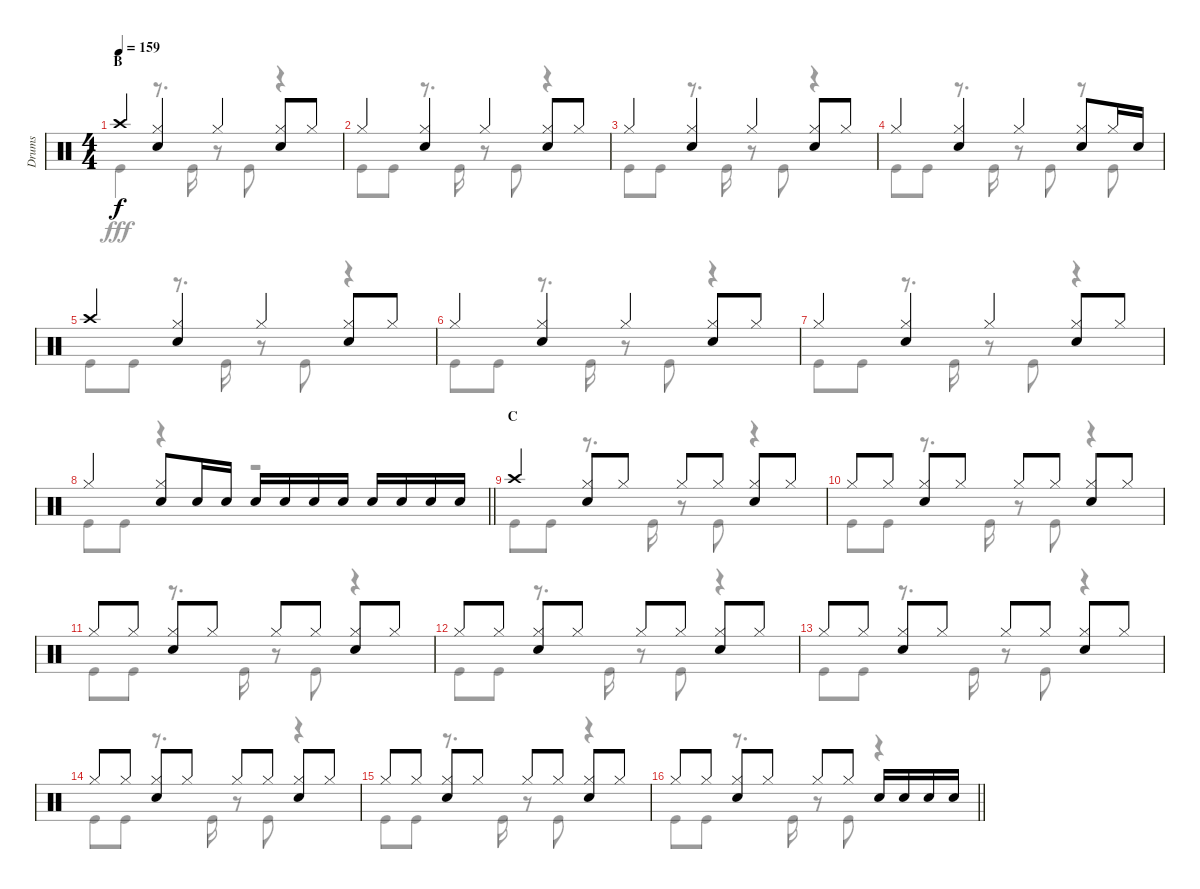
\track ("Drums" "Drums") {instrument percussion}
\staff {score}
\articulation defaults
\voice
\ts (4 4)
\section ("" "B")
\tempo 159
\clef neutral
\ks c "Crash high (hit)".4{dy f}
("Hi-Hat (closed)" "Snare (hit) 2").4 "Hi-Hat (closed)".4 ("Hi-Hat (closed)" "Snare (hit) 2").8 "Hi-Hat (closed)".8 |
"Hi-Hat (closed)".4 ("Hi-Hat (closed)" "Snare (hit) 2").4 "Hi-Hat (closed)".4 ("Hi-Hat (closed)" "Snare (hit) 2").8 "Hi-Hat (closed)".8 |
"Hi-Hat (closed)".4 ("Hi-Hat (closed)" "Snare (hit) 2").4 "Hi-Hat (closed)".4 ("Hi-Hat (closed)" "Snare (hit) 2").8 "Hi-Hat (closed)".8 |
"Hi-Hat (closed)".4 ("Hi-Hat (closed)" "Snare (hit) 2").4 "Hi-Hat (closed)".4 ("Hi-Hat (closed)" "Snare (hit) 2").8 "Hi-Hat (closed)".16 "Snare (hit) 2".16 |
"Crash high (hit)".4 ("Hi-Hat (closed)" "Snare (hit) 2").4 "Hi-Hat (closed)".4 ("Hi-Hat (closed)" "Snare (hit) 2").8 "Hi-Hat (closed)".8 |
"Hi-Hat (closed)".4 ("Hi-Hat (closed)" "Snare (hit) 2").4 "Hi-Hat (closed)".4 ("Hi-Hat (closed)" "Snare (hit) 2").8 "Hi-Hat (closed)".8 |
"Hi-Hat (closed)".4 ("Hi-Hat (closed)" "Snare (hit) 2").4 "Hi-Hat (closed)".4 ("Hi-Hat (closed)" "Snare (hit) 2").8 "Hi-Hat (closed)".8 |
\barLineRight lightlight "Hi-Hat (closed)".4
("Hi-Hat (closed)" "Snare (hit) 2").8 "Snare (hit) 2".16 "Snare (hit) 2".16 "Snare (hit) 2".16 "Snare (hit) 2".16 "Snare (hit) 2".16 "Snare (hit) 2".16 "Snare (hit) 2".16 "Snare (hit) 2".16 "Snare (hit) 2".16 "Snare (hit) 2".16 |
\section ("" "C")
"Crash high (hit)".4 ("Hi-Hat (closed)" "Snare (hit) 2").8 "Hi-Hat (closed)".8 "Hi-Hat (closed)".8 "Hi-Hat (closed)".8 ("Hi-Hat (closed)" "Snare (hit) 2").8 "Hi-Hat (closed)".8 |
"Hi-Hat (closed)".8 "Hi-Hat (closed)".8 ("Hi-Hat (closed)" "Snare (hit) 2").8 "Hi-Hat (closed)".8 "Hi-Hat (closed)".8 "Hi-Hat (closed)".8 ("Hi-Hat (closed)" "Snare (hit) 2").8 "Hi-Hat (closed)".8 |
"Hi-Hat (closed)".8 "Hi-Hat (closed)".8 ("Hi-Hat (closed)" "Snare (hit) 2").8 "Hi-Hat (closed)".8 "Hi-Hat (closed)".8 "Hi-Hat (closed)".8 ("Hi-Hat (closed)" "Snare (hit) 2").8 "Hi-Hat (closed)".8 |
"Hi-Hat (closed)".8 "Hi-Hat (closed)".8 ("Hi-Hat (closed)" "Snare (hit) 2").8 "Hi-Hat (closed)".8 "Hi-Hat (closed)".8 "Hi-Hat (closed)".8 ("Hi-Hat (closed)" "Snare (hit) 2").8 "Hi-Hat (closed)".8 |
"Hi-Hat (closed)".8 "Hi-Hat (closed)".8 ("Hi-Hat (closed)" "Snare (hit) 2").8 "Hi-Hat (closed)".8 "Hi-Hat (closed)".8 "Hi-Hat (closed)".8 ("Hi-Hat (closed)" "Snare (hit) 2").8 "Hi-Hat (closed)".8 |
"Hi-Hat (closed)".8 "Hi-Hat (closed)".8 ("Hi-Hat (closed)" "Snare (hit) 2").8 "Hi-Hat (closed)".8 "Hi-Hat (closed)".8 "Hi-Hat (closed)".8 ("Hi-Hat (closed)" "Snare (hit) 2").8 "Hi-Hat (closed)".8 |
"Hi-Hat (closed)".8 "Hi-Hat (closed)".8 ("Hi-Hat (closed)" "Snare (hit) 2").8 "Hi-Hat (closed)".8 "Hi-Hat (closed)".8 "Hi-Hat (closed)".8 ("Hi-Hat (closed)" "Snare (hit) 2").8 "Hi-Hat (closed)".8 |
\barLineRight lightlight "Hi-Hat (closed)".8 "Hi-Hat (closed)".8
("Hi-Hat (closed)" "Snare (hit) 2").8 "Hi-Hat (closed)".8 "Hi-Hat (closed)".8 "Hi-Hat (closed)".8 "Snare (hit) 2".16 "Snare (hit) 2".16 "Snare (hit) 2".16 "Snare (hit) 2".16
\voice
\clef neutral
\ottava regular
\simile none
\ks c "Kick (hit)".4{dy fff}
r.8{d} "Kick (hit)".16 r.8 "Kick (hit)".8 r.4 |
"Kick (hit)".8 "Kick (hit)".8 r.8{d} "Kick (hit)".16 r.8 "Kick (hit)".8 r.4 |
"Kick (hit)".8 "Kick (hit)".8 r.8{d} "Kick (hit)".16 r.8 "Kick (hit)".8 r.4 |
"Kick (hit)".8 "Kick (hit)".8 r.8{d} "Kick (hit)".16 r.8 "Kick (hit)".8 r.8 "Kick (hit)".8 |
"Kick (hit)".8 "Kick (hit)".8 r.8{d} "Kick (hit)".16 r.8 "Kick (hit)".8 r.4 |
"Kick (hit)".8 "Kick (hit)".8 r.8{d} "Kick (hit)".16 r.8 "Kick (hit)".8 r.4 |
"Kick (hit)".8 "Kick (hit)".8 r.8{d} "Kick (hit)".16 r.8 "Kick (hit)".8 r.4 |
\barLineRight lightlight "Kick (hit)".8 "Kick (hit)".8
r.4 r.2 |
"Kick (hit)".8 "Kick (hit)".8 r.8{d} "Kick (hit)".16 r.8 "Kick (hit)".8 r.4 |
"Kick (hit)".8 "Kick (hit)".8 r.8{d} "Kick (hit)".16 r.8 "Kick (hit)".8 r.4 |
"Kick (hit)".8 "Kick (hit)".8 r.8{d} "Kick (hit)".16 r.8 "Kick (hit)".8 r.4 |
"Kick (hit)".8 "Kick (hit)".8 r.8{d} "Kick (hit)".16 r.8 "Kick (hit)".8 r.4 |
"Kick (hit)".8 "Kick (hit)".8 r.8{d} "Kick (hit)".16 r.8 "Kick (hit)".8 r.4 |
"Kick (hit)".8 "Kick (hit)".8 r.8{d} "Kick (hit)".16 r.8 "Kick (hit)".8 r.4 |
"Kick (hit)".8 "Kick (hit)".8 r.8{d} "Kick (hit)".16 r.8 "Kick (hit)".8 r.4 |
\barLineRight lightlight "Kick (hit)".8 "Kick (hit)".8
r.8{d} "Kick (hit)".16 r.8 "Kick (hit)".8 r.4
